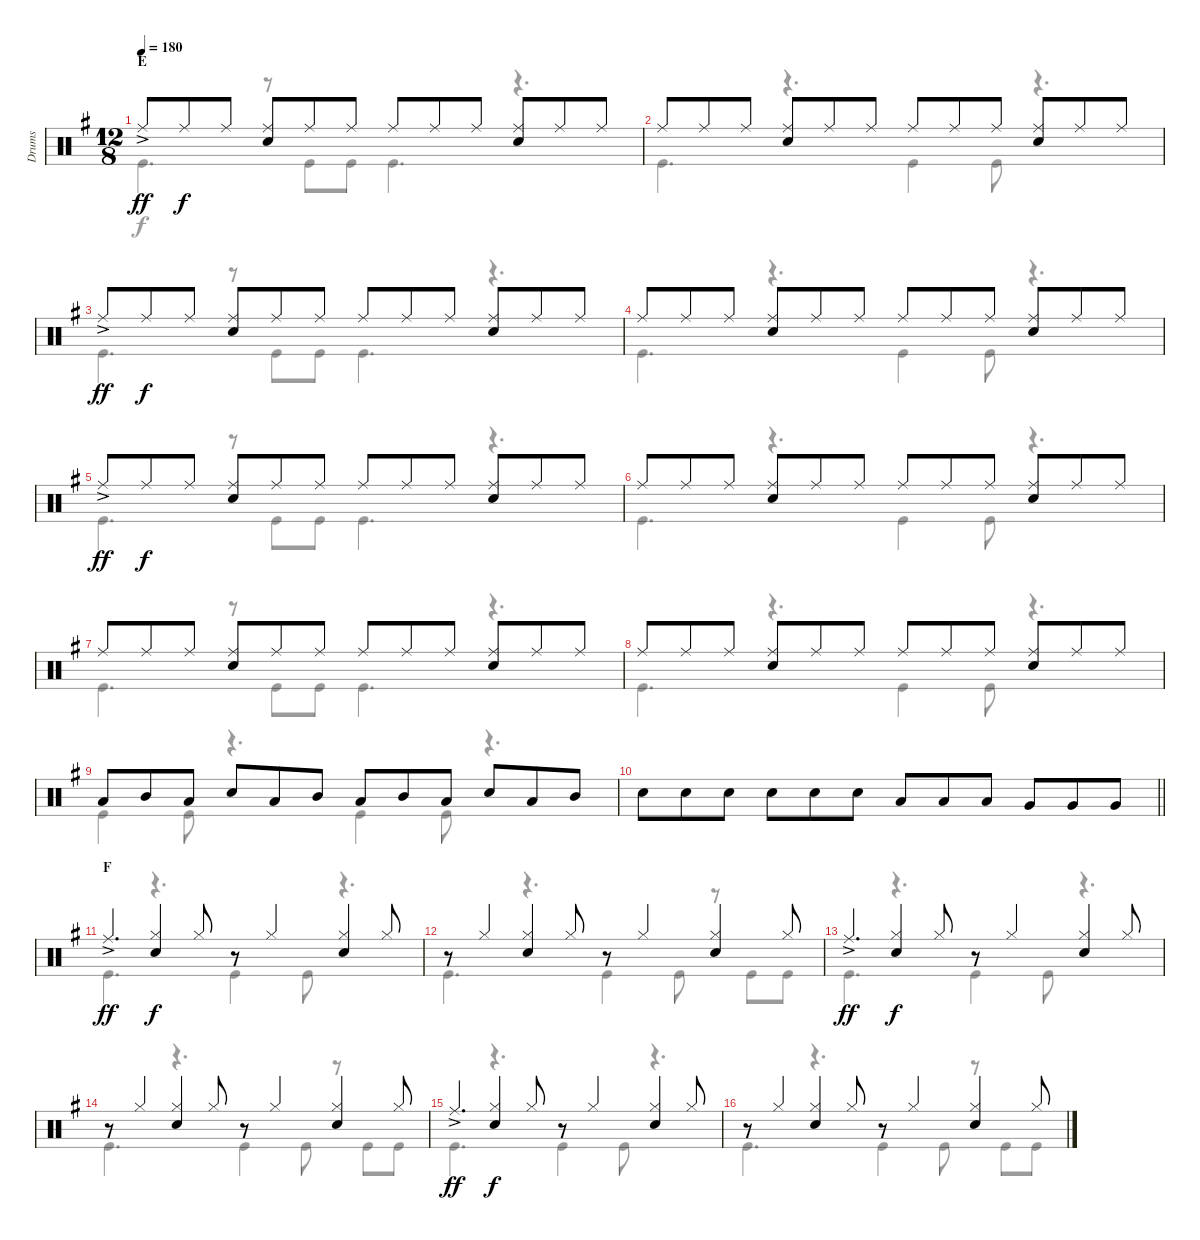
\track ("Drums" "Drums") {instrument percussion}
\staff {score}
\articulation defaults
\voice
\ts (12 8)
\section ("" "E")
\tempo 180
\clef neutral
\ks g "Ride (middle)"{ac}.8{dy ff} "Ride (middle)".8{dy f} "Ride (middle)".8
("Ride (middle)" "Snare (hit) 2").8 "Ride (middle)".8 "Ride (middle)".8 "Ride (middle)".8 "Ride (middle)".8 "Ride (middle)".8 ("Ride (middle)" "Snare (hit) 2").8 "Ride (middle)".8 "Ride (middle)".8 |
"Ride (middle)".8 "Ride (middle)".8 "Ride (middle)".8 ("Ride (middle)" "Snare (hit) 2").8 "Ride (middle)".8 "Ride (middle)".8 "Ride (middle)".8 "Ride (middle)".8 "Ride (middle)".8 ("Ride (middle)" "Snare (hit) 2").8 "Ride (middle)".8 "Ride (middle)".8 |
"Ride (middle)"{ac}.8{dy ff} "Ride (middle)".8{dy f} "Ride (middle)".8 ("Ride (middle)" "Snare (hit) 2").8 "Ride (middle)".8 "Ride (middle)".8 "Ride (middle)".8 "Ride (middle)".8 "Ride (middle)".8 ("Ride (middle)" "Snare (hit) 2").8 "Ride (middle)".8 "Ride (middle)".8 |
"Ride (middle)".8 "Ride (middle)".8 "Ride (middle)".8 ("Ride (middle)" "Snare (hit) 2").8 "Ride (middle)".8 "Ride (middle)".8 "Ride (middle)".8 "Ride (middle)".8 "Ride (middle)".8 ("Ride (middle)" "Snare (hit) 2").8 "Ride (middle)".8 "Ride (middle)".8 |
"Ride (middle)"{ac}.8{dy ff} "Ride (middle)".8{dy f} "Ride (middle)".8 ("Ride (middle)" "Snare (hit) 2").8 "Ride (middle)".8 "Ride (middle)".8 "Ride (middle)".8 "Ride (middle)".8 "Ride (middle)".8 ("Ride (middle)" "Snare (hit) 2").8 "Ride (middle)".8 "Ride (middle)".8 |
"Ride (middle)".8 "Ride (middle)".8 "Ride (middle)".8 ("Ride (middle)" "Snare (hit) 2").8 "Ride (middle)".8 "Ride (middle)".8 "Ride (middle)".8 "Ride (middle)".8 "Ride (middle)".8 ("Ride (middle)" "Snare (hit) 2").8 "Ride (middle)".8 "Ride (middle)".8 |
"Ride (middle)".8 "Ride (middle)".8 "Ride (middle)".8 ("Ride (middle)" "Snare (hit) 2").8 "Ride (middle)".8 "Ride (middle)".8 "Ride (middle)".8 "Ride (middle)".8 "Ride (middle)".8 ("Ride (middle)" "Snare (hit) 2").8 "Ride (middle)".8 "Ride (middle)".8 |
"Ride (middle)".8 "Ride (middle)".8 "Ride (middle)".8 ("Ride (middle)" "Snare (hit) 2").8 "Ride (middle)".8 "Ride (middle)".8 "Ride (middle)".8 "Ride (middle)".8 "Ride (middle)".8 ("Ride (middle)" "Snare (hit) 2").8 "Ride (middle)".8 "Ride (middle)".8 |
"Low Tom (hit)".8 "Mid Tom (hit)".8 "Low Tom (hit)".8 "Snare (hit) 2".8 "Low Tom (hit)".8 "Mid Tom (hit)".8 "Low Tom (hit)".8 "Mid Tom (hit)".8 "Low Tom (hit)".8 "Snare (hit) 2".8 "Low Tom (hit)".8 "Mid Tom (hit)".8 |
\barLineRight lightlight "Snare (hit) 2".8 "Snare (hit) 2".8 "Snare (hit) 2".8 "Snare (hit) 2".8 "Snare (hit) 2".8 "Snare (hit) 2".8 "Low Tom (hit)".8 "Low Tom (hit)".8 "Low Tom (hit)".8 "Very Low Tom (hit)".8 "Very Low Tom (hit)".8 "Very Low Tom (hit)".8
|
\section ("" "F")
"Ride (middle)"{ac}.4{d dy ff} ("Hi-Hat (closed)" "Snare (hit) 2").4{dy f} "Hi-Hat (closed)".8 r.8 "Hi-Hat (closed)".4 ("Hi-Hat (closed)" "Snare (hit) 2").4 "Hi-Hat (closed)".8 |
r.8 "Hi-Hat (closed)".4 ("Hi-Hat (closed)" "Snare (hit) 2").4 "Hi-Hat (closed)".8 r.8 "Hi-Hat (closed)".4 ("Hi-Hat (closed)" "Snare (hit) 2").4 "Hi-Hat (closed)".8 |
"Ride (middle)"{ac}.4{d dy ff} ("Hi-Hat (closed)" "Snare (hit) 2").4{dy f} "Hi-Hat (closed)".8 r.8 "Hi-Hat (closed)".4 ("Hi-Hat (closed)" "Snare (hit) 2").4 "Hi-Hat (closed)".8 |
r.8 "Hi-Hat (closed)".4 ("Hi-Hat (closed)" "Snare (hit) 2").4 "Hi-Hat (closed)".8 r.8 "Hi-Hat (closed)".4 ("Hi-Hat (closed)" "Snare (hit) 2").4 "Hi-Hat (closed)".8 |
"Ride (middle)"{ac}.4{d dy ff} ("Hi-Hat (closed)" "Snare (hit) 2").4{dy f} "Hi-Hat (closed)".8 r.8 "Hi-Hat (closed)".4 ("Hi-Hat (closed)" "Snare (hit) 2").4 "Hi-Hat (closed)".8 |
r.8 "Hi-Hat (closed)".4 ("Hi-Hat (closed)" "Snare (hit) 2").4 "Hi-Hat (closed)".8 r.8 "Hi-Hat (closed)".4 ("Hi-Hat (closed)" "Snare (hit) 2").4 "Hi-Hat (closed)".8
\voice
\clef neutral
\ottava regular
\simile none
\ks g "Kick (hit)".4{d dy f}
r.8 "Kick (hit)".8 "Kick (hit)".8 "Kick (hit)".4{d} r.4{d} |
"Kick (hit)".4{d} r.4{d} "Kick (hit)".4 "Kick (hit)".8 r.4{d} |
"Kick (hit)".4{d} r.8 "Kick (hit)".8 "Kick (hit)".8 "Kick (hit)".4{d} r.4{d} |
"Kick (hit)".4{d} r.4{d} "Kick (hit)".4 "Kick (hit)".8 r.4{d} |
"Kick (hit)".4{d} r.8 "Kick (hit)".8 "Kick (hit)".8 "Kick (hit)".4{d} r.4{d} |
"Kick (hit)".4{d} r.4{d} "Kick (hit)".4 "Kick (hit)".8 r.4{d} |
"Kick (hit)".4{d} r.8 "Kick (hit)".8 "Kick (hit)".8 "Kick (hit)".4{d} r.4{d} |
"Kick (hit)".4{d} r.4{d} "Kick (hit)".4 "Kick (hit)".8 r.4{d} |
"Kick (hit)".4 "Kick (hit)".8 r.4{d} "Kick (hit)".4 "Kick (hit)".8 r.4{d} |
\barLineRight lightlight
|
"Kick (hit)".4{d} r.4{d} "Kick (hit)".4 "Kick (hit)".8 r.4{d} |
"Kick (hit)".4{d} r.4{d} "Kick (hit)".4 "Kick (hit)".8 r.8 "Kick (hit)".8 "Kick (hit)".8 |
"Kick (hit)".4{d} r.4{d} "Kick (hit)".4 "Kick (hit)".8 r.4{d} |
"Kick (hit)".4{d} r.4{d} "Kick (hit)".4 "Kick (hit)".8 r.8 "Kick (hit)".8 "Kick (hit)".8 |
"Kick (hit)".4{d} r.4{d} "Kick (hit)".4 "Kick (hit)".8 r.4{d} |
"Kick (hit)".4{d} r.4{d} "Kick (hit)".4 "Kick (hit)".8 r.8 "Kick (hit)".8 "Kick (hit)".8
